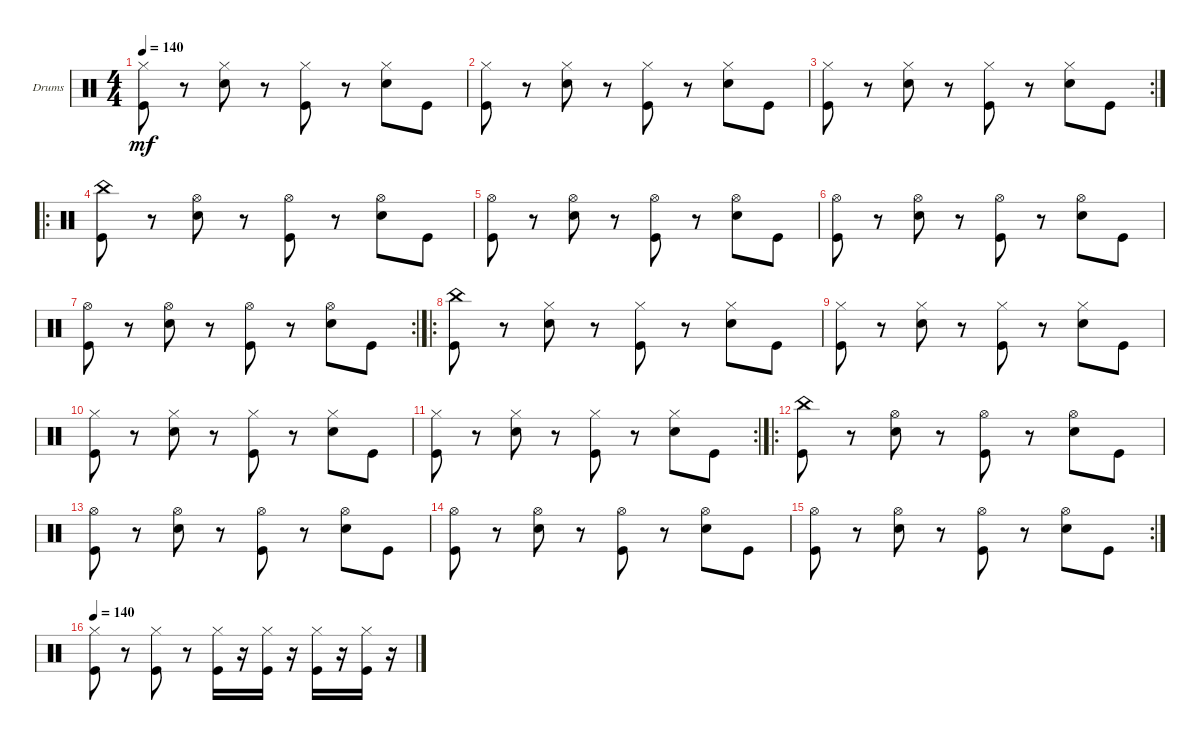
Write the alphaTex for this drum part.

\bracketExtendMode groupsimilarinstruments
\firstSystemTrackNameOrientation horizontal
\otherSystemsTrackNameOrientation horizontal
\track ("Drums" "Drums") {instrument percussion}
\staff {score}
\articulation defaults
\ts (4 4)
\tempo 140
\clef neutral
\ks c
("Kick (hit)" "Hi-Hat (closed)").8{dy mf} r.8 ("Snare (hit) 2" "Hi-Hat (closed)").8 r.8 ("Kick (hit)" "Hi-Hat (closed)").8 r.8 ("Snare (hit) 2" "Hi-Hat (closed)").8 "Kick (hit)".8 |
("Kick (hit)" "Hi-Hat (closed)").8 r.8 ("Snare (hit) 2" "Hi-Hat (closed)").8 r.8 ("Kick (hit)" "Hi-Hat (closed)").8 r.8 ("Snare (hit) 2" "Hi-Hat (closed)").8 "Kick (hit)".8 |
\rc 2
("Kick (hit)" "Hi-Hat (closed)").8 r.8 ("Snare (hit) 2" "Hi-Hat (closed)").8 r.8 ("Kick (hit)" "Hi-Hat (closed)").8 r.8 ("Snare (hit) 2" "Hi-Hat (closed)").8 "Kick (hit)".8 |
\ro
("Kick (hit)" "China (hit)").8 r.8 ("Snare (hit) 2" "Hi-Hat (open)").8 r.8 ("Kick (hit)" "Hi-Hat (open)").8 r.8 ("Snare (hit) 2" "Hi-Hat (open)").8 "Kick (hit)".8 |
("Kick (hit)" "Hi-Hat (open)").8 r.8 ("Snare (hit) 2" "Hi-Hat (open)").8 r.8 ("Kick (hit)" "Hi-Hat (open)").8 r.8 ("Snare (hit) 2" "Hi-Hat (open)").8 "Kick (hit)".8 |
("Kick (hit)" "Hi-Hat (open)").8 r.8 ("Snare (hit) 2" "Hi-Hat (open)").8 r.8 ("Kick (hit)" "Hi-Hat (open)").8 r.8 ("Snare (hit) 2" "Hi-Hat (open)").8 "Kick (hit)".8 |
\rc 2
("Kick (hit)" "Hi-Hat (open)").8 r.8 ("Snare (hit) 2" "Hi-Hat (open)").8 r.8 ("Kick (hit)" "Hi-Hat (open)").8 r.8 ("Snare (hit) 2" "Hi-Hat (open)").8 "Kick (hit)".8 |
\ro
("Kick (hit)" "China (hit)").8 r.8 ("Snare (hit) 2" "Hi-Hat (closed)").8 r.8 ("Kick (hit)" "Hi-Hat (closed)").8 r.8 ("Snare (hit) 2" "Hi-Hat (closed)").8 "Kick (hit)".8 |
("Kick (hit)" "Hi-Hat (closed)").8 r.8 ("Snare (hit) 2" "Hi-Hat (closed)").8 r.8 ("Kick (hit)" "Hi-Hat (closed)").8 r.8 ("Snare (hit) 2" "Hi-Hat (closed)").8 "Kick (hit)".8 |
("Kick (hit)" "Hi-Hat (closed)").8 r.8 ("Snare (hit) 2" "Hi-Hat (closed)").8 r.8 ("Kick (hit)" "Hi-Hat (closed)").8 r.8 ("Snare (hit) 2" "Hi-Hat (closed)").8 "Kick (hit)".8 |
\rc 2
("Kick (hit)" "Hi-Hat (closed)").8 r.8 ("Snare (hit) 2" "Hi-Hat (closed)").8 r.8 ("Kick (hit)" "Hi-Hat (closed)").8 r.8 ("Snare (hit) 2" "Hi-Hat (closed)").8 "Kick (hit)".8 |
\ro
("Kick (hit)" "China (hit)").8 r.8 ("Snare (hit) 2" "Hi-Hat (open)").8 r.8 ("Kick (hit)" "Hi-Hat (open)").8 r.8 ("Snare (hit) 2" "Hi-Hat (open)").8 "Kick (hit)".8 |
("Kick (hit)" "Hi-Hat (open)").8 r.8 ("Snare (hit) 2" "Hi-Hat (open)").8 r.8 ("Kick (hit)" "Hi-Hat (open)").8 r.8 ("Snare (hit) 2" "Hi-Hat (open)").8 "Kick (hit)".8 |
("Kick (hit)" "Hi-Hat (open)").8 r.8 ("Snare (hit) 2" "Hi-Hat (open)").8 r.8 ("Kick (hit)" "Hi-Hat (open)").8 r.8 ("Snare (hit) 2" "Hi-Hat (open)").8 "Kick (hit)".8 |
\rc 2
("Kick (hit)" "Hi-Hat (open)").8 r.8 ("Snare (hit) 2" "Hi-Hat (open)").8 r.8 ("Kick (hit)" "Hi-Hat (open)").8 r.8 ("Snare (hit) 2" "Hi-Hat (open)").8 "Kick (hit)".8 |
\tempo 140
("Kick (hit)" "Hi-Hat (closed)").8 r.8 ("Kick (hit)" "Hi-Hat (closed)").8 r.8 ("Kick (hit)" "Hi-Hat (closed)").16 r.16 ("Kick (hit)" "Hi-Hat (closed)").16 r.16 ("Kick (hit)" "Hi-Hat (closed)").16 r.16 ("Kick (hit)" "Hi-Hat (closed)").16 r.16
